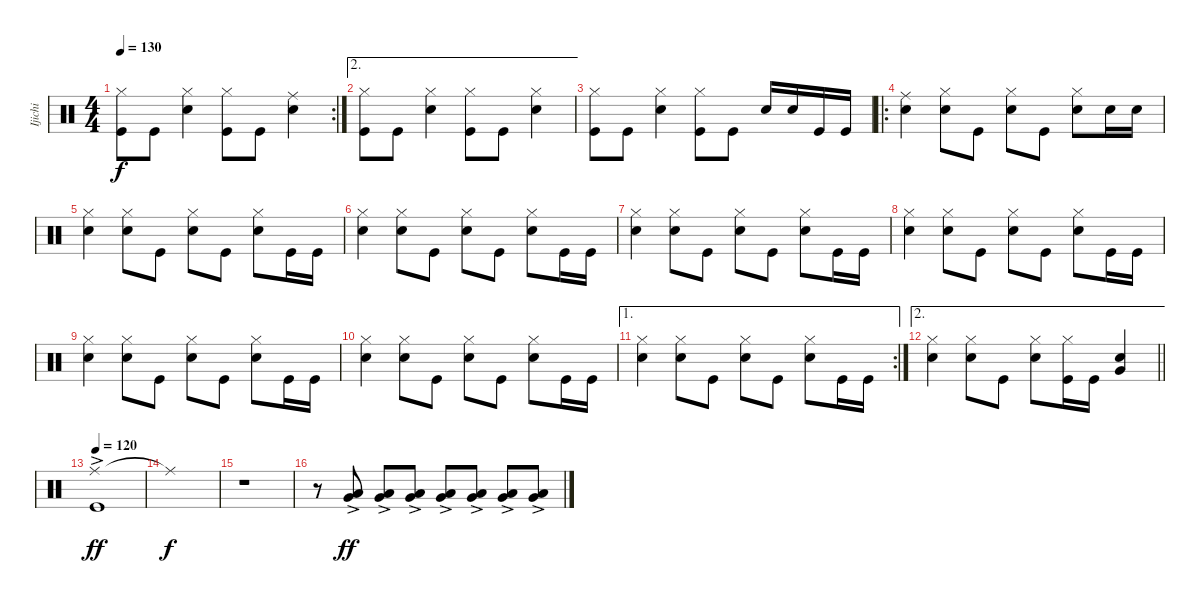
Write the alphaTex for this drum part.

\track ("Ijichi" "Ijichi") {instrument percussion}
\staff {score}
\articulation defaults
\rc 2
\ts (4 4)
\tempo 130
\clef neutral
\ks c
("Hi-Hat (closed)" "Kick (hit)").8{dy f} "Kick (hit)".8 ("Hi-Hat (closed)" "Snare (hit) 2").4 ("Hi-Hat (closed)" "Kick (hit)").8 "Kick (hit)".8 ("Ride (middle)" "Snare (hit) 2").4 |
\ae 2
("Hi-Hat (closed)" "Kick (hit)").8 "Kick (hit)".8 ("Hi-Hat (closed)" "Snare (hit) 2").4 ("Hi-Hat (closed)" "Kick (hit)").8 "Kick (hit)".8 ("Hi-Hat (closed)" "Snare (hit) 2").4 |
("Hi-Hat (closed)" "Kick (hit)").8 "Kick (hit)".8 ("Hi-Hat (closed)" "Snare (hit) 2").4 ("Hi-Hat (closed)" "Kick (hit)").8 "Kick (hit)".8 "Snare (hit) 2".16 "Snare (hit) 2".16 "Kick (hit)".16 "Kick (hit)".16 |
\ro
("Ride (middle)" "Snare (hit) 2").4 ("Hi-Hat (closed)" "Snare (hit) 2").8 "Kick (hit)".8 ("Hi-Hat (closed)" "Snare (hit) 2").8 "Kick (hit)".8 ("Hi-Hat (closed)" "Snare (hit) 2").8 "Snare (hit) 2".16 "Snare (hit) 2".16 |
("Hi-Hat (closed)" "Snare (hit) 2").4 ("Hi-Hat (closed)" "Snare (hit) 2").8 "Kick (hit)".8 ("Hi-Hat (closed)" "Snare (hit) 2").8 "Kick (hit)".8 ("Hi-Hat (closed)" "Snare (hit) 2").8 "Kick (hit)".16 "Kick (hit)".16 |
("Hi-Hat (closed)" "Snare (hit) 2").4 ("Hi-Hat (closed)" "Snare (hit) 2").8 "Kick (hit)".8 ("Hi-Hat (closed)" "Snare (hit) 2").8 "Kick (hit)".8 ("Hi-Hat (closed)" "Snare (hit) 2").8 "Kick (hit)".16 "Kick (hit)".16 |
("Hi-Hat (closed)" "Snare (hit) 2").4 ("Hi-Hat (closed)" "Snare (hit) 2").8 "Kick (hit)".8 ("Hi-Hat (closed)" "Snare (hit) 2").8 "Kick (hit)".8 ("Hi-Hat (closed)" "Snare (hit) 2").8 "Kick (hit)".16 "Kick (hit)".16 |
("Hi-Hat (closed)" "Snare (hit) 2").4 ("Hi-Hat (closed)" "Snare (hit) 2").8 "Kick (hit)".8 ("Hi-Hat (closed)" "Snare (hit) 2").8 "Kick (hit)".8 ("Hi-Hat (closed)" "Snare (hit) 2").8 "Kick (hit)".16 "Kick (hit)".16 |
("Hi-Hat (closed)" "Snare (hit) 2").4 ("Hi-Hat (closed)" "Snare (hit) 2").8 "Kick (hit)".8 ("Hi-Hat (closed)" "Snare (hit) 2").8 "Kick (hit)".8 ("Hi-Hat (closed)" "Snare (hit) 2").8 "Kick (hit)".16 "Kick (hit)".16 |
("Hi-Hat (closed)" "Snare (hit) 2").4 ("Hi-Hat (closed)" "Snare (hit) 2").8 "Kick (hit)".8 ("Hi-Hat (closed)" "Snare (hit) 2").8 "Kick (hit)".8 ("Hi-Hat (closed)" "Snare (hit) 2").8 "Kick (hit)".16 "Kick (hit)".16 |
\ae 1
\rc 2
("Hi-Hat (closed)" "Snare (hit) 2").4 ("Hi-Hat (closed)" "Snare (hit) 2").8 "Kick (hit)".8 ("Hi-Hat (closed)" "Snare (hit) 2").8 "Kick (hit)".8 ("Hi-Hat (closed)" "Snare (hit) 2").8 "Kick (hit)".16 "Kick (hit)".16 |
\ae 2
\barLineRight lightlight
("Hi-Hat (closed)" "Snare (hit) 2").4 ("Hi-Hat (closed)" "Snare (hit) 2").8 "Kick (hit)".8 ("Hi-Hat (closed)" "Snare (hit) 2").8 ("Hi-Hat (closed)" "Kick (hit)").16 "Kick (hit)".16 ("Snare (hit) 2" "Very Low Tom (hit)").4 |
\tempo 120
("Ride (middle)"{ac} "Kick (hit)").1{dy ff volume 16} |
"Ride (middle)"{t}.1{dy f} |
r.1 |
r.8 ("Low Tom (hit)"{ac} "Very Low Tom (hit)"{ac}).8{dy ff} ("Low Tom (hit)"{ac} "Very Low Tom (hit)"{ac}).8 ("Low Tom (hit)"{ac} "Very Low Tom (hit)"{ac}).8 ("Low Tom (hit)"{ac} "Very Low Tom (hit)"{ac}).8 ("Low Tom (hit)"{ac} "Very Low Tom (hit)"{ac}).8 ("Low Tom (hit)"{ac} "Very Low Tom (hit)"{ac}).8 ("Low Tom (hit)"{ac} "Very Low Tom (hit)"{ac}).8
